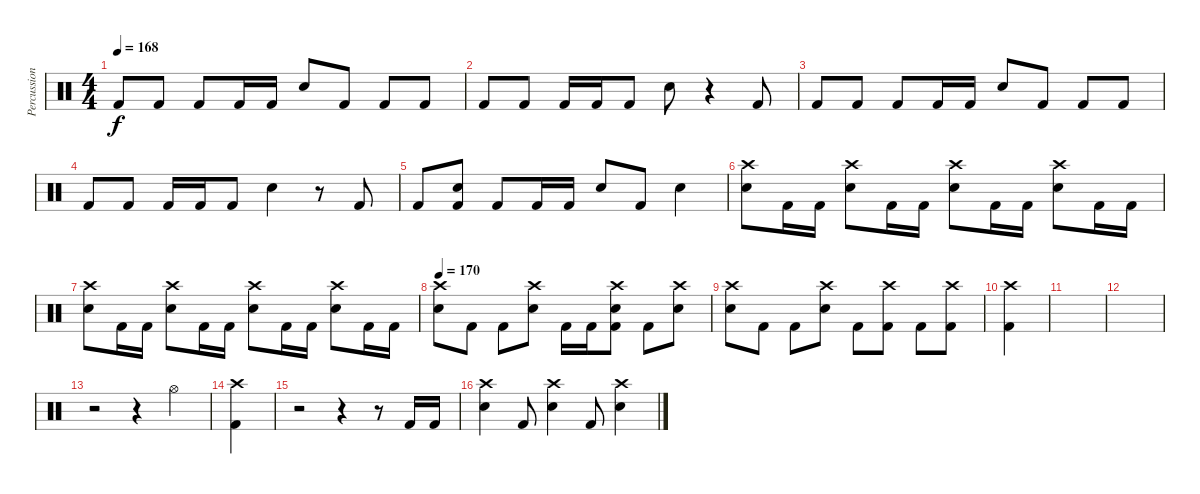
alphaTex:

\track ("Percussion" "Percussion") {instrument percussion}
\staff {score}
\articulation defaults
\ts (4 4)
\tempo 168
\clef neutral
\ks c "Kick (hit) 2".8{dy f} "Kick (hit) 2".8 "Kick (hit) 2".8 "Kick (hit) 2".16 "Kick (hit) 2".16 "Electric Snare (hit)".8 "Kick (hit) 2".8 "Kick (hit) 2".8 "Kick (hit) 2".8
|
"Kick (hit) 2".8 "Kick (hit) 2".8 "Kick (hit) 2".16 "Kick (hit) 2".16 "Kick (hit) 2".8 "Electric Snare (hit)".8 r.4 "Kick (hit) 2".8 |
"Kick (hit) 2".8 "Kick (hit) 2".8 "Kick (hit) 2".8 "Kick (hit) 2".16 "Kick (hit) 2".16 "Electric Snare (hit)".8 "Kick (hit) 2".8 "Kick (hit) 2".8 "Kick (hit) 2".8 |
"Kick (hit) 2".8 "Kick (hit) 2".8 "Kick (hit) 2".16 "Kick (hit) 2".16 "Kick (hit) 2".8 "Electric Snare (hit)".4 r.8 "Kick (hit) 2".8 |
"Kick (hit) 2".8 ("Electric Snare (hit)" "Kick (hit) 2").8 "Kick (hit) 2".8 "Kick (hit) 2".16 "Kick (hit) 2".16 "Electric Snare (hit)".8 "Kick (hit) 2".8 "Electric Snare (hit)".4 |
("Crash high (hit)" "Electric Snare (hit)").8 "Kick (hit) 2".16 "Kick (hit) 2".16 ("Crash high (hit)" "Electric Snare (hit)").8 "Kick (hit) 2".16 "Kick (hit) 2".16 ("Crash high (hit)" "Electric Snare (hit)").8 "Kick (hit) 2".16 "Kick (hit) 2".16 ("Crash high (hit)" "Electric Snare (hit)").8 "Kick (hit) 2".16 "Kick (hit) 2".16 |
("Crash high (hit)" "Electric Snare (hit)").8 "Kick (hit) 2".16 "Kick (hit) 2".16 ("Crash high (hit)" "Electric Snare (hit)").8 "Kick (hit) 2".16 "Kick (hit) 2".16 ("Crash high (hit)" "Electric Snare (hit)").8 "Kick (hit) 2".16 "Kick (hit) 2".16 ("Crash high (hit)" "Electric Snare (hit)").8 "Kick (hit) 2".16 "Kick (hit) 2".16 |
\tempo 170
("Crash high (hit)" "Electric Snare (hit)").8 "Kick (hit) 2".8 "Kick (hit) 2".8 ("Crash high (hit)" "Electric Snare (hit)").8 "Kick (hit) 2".16 "Kick (hit) 2".16 ("Crash high (hit)" "Electric Snare (hit)" "Kick (hit) 2").8 "Kick (hit) 2".8 ("Crash high (hit)" "Electric Snare (hit)").8 |
("Crash high (hit)" "Electric Snare (hit)").8 "Kick (hit) 2".8 "Kick (hit) 2".8 ("Crash high (hit)" "Electric Snare (hit)").8 "Kick (hit) 2".8 ("Crash high (hit)" "Kick (hit) 2").8 "Kick (hit) 2"{x}.8 ("Crash high (hit)" "Kick (hit) 2").8 |
("Crash high (hit)" "Kick (hit) 2").4 |
|
|
r.2 r.4 "Hi-Hat (open)".4 |
("Crash high (hit)" "Kick (hit) 2").4 |
r.2 r.4 r.8 "Kick (hit) 2".16 "Kick (hit) 2".16 |
("Crash high (hit)" "Electric Snare (hit)").4 "Kick (hit) 2".8 ("Crash high (hit)" "Electric Snare (hit)").4 "Kick (hit) 2".8 ("Crash high (hit)" "Electric Snare (hit)").4
